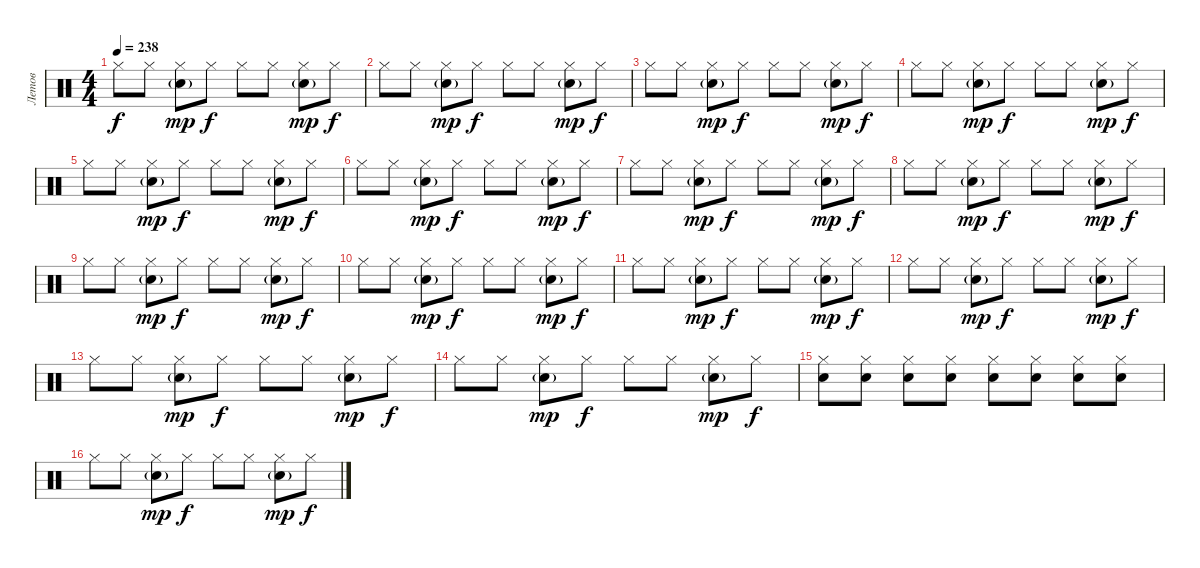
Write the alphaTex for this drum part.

\track ("Летов" "Летов") {instrument percussion}
\staff {score}
\articulation defaults
\ts (4 4)
\tempo 238
\clef neutral
\ks c "Hi-Hat (closed)".8{dy f} "Hi-Hat (closed)".8
("Hi-Hat (closed)" "Snare (hit) 2"{g}).8{dy mp} "Hi-Hat (closed)".8{dy f} "Hi-Hat (closed)".8 "Hi-Hat (closed)".8 ("Hi-Hat (closed)" "Snare (hit) 2"{g}).8{dy mp} "Hi-Hat (closed)".8{dy f} |
"Hi-Hat (closed)".8 "Hi-Hat (closed)".8 ("Hi-Hat (closed)" "Snare (hit) 2"{g}).8{dy mp} "Hi-Hat (closed)".8{dy f} "Hi-Hat (closed)".8 "Hi-Hat (closed)".8 ("Hi-Hat (closed)" "Snare (hit) 2"{g}).8{dy mp} "Hi-Hat (closed)".8{dy f} |
"Hi-Hat (closed)".8 "Hi-Hat (closed)".8 ("Hi-Hat (closed)" "Snare (hit) 2"{g}).8{dy mp} "Hi-Hat (closed)".8{dy f} "Hi-Hat (closed)".8 "Hi-Hat (closed)".8 ("Hi-Hat (closed)" "Snare (hit) 2"{g}).8{dy mp} "Hi-Hat (closed)".8{dy f} |
"Hi-Hat (closed)".8 "Hi-Hat (closed)".8 ("Hi-Hat (closed)" "Snare (hit) 2"{g}).8{dy mp} "Hi-Hat (closed)".8{dy f} "Hi-Hat (closed)".8 "Hi-Hat (closed)".8 ("Hi-Hat (closed)" "Snare (hit) 2"{g}).8{dy mp} "Hi-Hat (closed)".8{dy f} |
"Hi-Hat (closed)".8 "Hi-Hat (closed)".8 ("Hi-Hat (closed)" "Snare (hit) 2"{g}).8{dy mp} "Hi-Hat (closed)".8{dy f} "Hi-Hat (closed)".8 "Hi-Hat (closed)".8 ("Hi-Hat (closed)" "Snare (hit) 2"{g}).8{dy mp} "Hi-Hat (closed)".8{dy f} |
"Hi-Hat (closed)".8 "Hi-Hat (closed)".8 ("Hi-Hat (closed)" "Snare (hit) 2"{g}).8{dy mp} "Hi-Hat (closed)".8{dy f} "Hi-Hat (closed)".8 "Hi-Hat (closed)".8 ("Hi-Hat (closed)" "Snare (hit) 2"{g}).8{dy mp} "Hi-Hat (closed)".8{dy f} |
"Hi-Hat (closed)".8 "Hi-Hat (closed)".8 ("Hi-Hat (closed)" "Snare (hit) 2"{g}).8{dy mp} "Hi-Hat (closed)".8{dy f} "Hi-Hat (closed)".8 "Hi-Hat (closed)".8 ("Hi-Hat (closed)" "Snare (hit) 2"{g}).8{dy mp} "Hi-Hat (closed)".8{dy f} |
"Hi-Hat (closed)".8 "Hi-Hat (closed)".8 ("Hi-Hat (closed)" "Snare (hit) 2"{g}).8{dy mp} "Hi-Hat (closed)".8{dy f} "Hi-Hat (closed)".8 "Hi-Hat (closed)".8 ("Hi-Hat (closed)" "Snare (hit) 2"{g}).8{dy mp} "Hi-Hat (closed)".8{dy f} |
"Hi-Hat (closed)".8 "Hi-Hat (closed)".8 ("Hi-Hat (closed)" "Snare (hit) 2"{g}).8{dy mp} "Hi-Hat (closed)".8{dy f} "Hi-Hat (closed)".8 "Hi-Hat (closed)".8 ("Hi-Hat (closed)" "Snare (hit) 2"{g}).8{dy mp} "Hi-Hat (closed)".8{dy f} |
"Hi-Hat (closed)".8 "Hi-Hat (closed)".8 ("Hi-Hat (closed)" "Snare (hit) 2"{g}).8{dy mp} "Hi-Hat (closed)".8{dy f} "Hi-Hat (closed)".8 "Hi-Hat (closed)".8 ("Hi-Hat (closed)" "Snare (hit) 2"{g}).8{dy mp} "Hi-Hat (closed)".8{dy f} |
"Hi-Hat (closed)".8 "Hi-Hat (closed)".8 ("Hi-Hat (closed)" "Snare (hit) 2"{g}).8{dy mp} "Hi-Hat (closed)".8{dy f} "Hi-Hat (closed)".8 "Hi-Hat (closed)".8 ("Hi-Hat (closed)" "Snare (hit) 2"{g}).8{dy mp} "Hi-Hat (closed)".8{dy f} |
"Hi-Hat (closed)".8 "Hi-Hat (closed)".8 ("Hi-Hat (closed)" "Snare (hit) 2"{g}).8{dy mp} "Hi-Hat (closed)".8{dy f} "Hi-Hat (closed)".8 "Hi-Hat (closed)".8 ("Hi-Hat (closed)" "Snare (hit) 2"{g}).8{dy mp} "Hi-Hat (closed)".8{dy f} |
"Hi-Hat (closed)".8 "Hi-Hat (closed)".8 ("Hi-Hat (closed)" "Snare (hit) 2"{g}).8{dy mp} "Hi-Hat (closed)".8{dy f} "Hi-Hat (closed)".8 "Hi-Hat (closed)".8 ("Hi-Hat (closed)" "Snare (hit) 2"{g}).8{dy mp} "Hi-Hat (closed)".8{dy f} |
"Hi-Hat (closed)".8 "Hi-Hat (closed)".8 ("Hi-Hat (closed)" "Snare (hit) 2"{g}).8{dy mp} "Hi-Hat (closed)".8{dy f} "Hi-Hat (closed)".8 "Hi-Hat (closed)".8 ("Hi-Hat (closed)" "Snare (hit) 2"{g}).8{dy mp} "Hi-Hat (closed)".8{dy f} |
("Hi-Hat (closed)" "Snare (hit) 2").8 ("Hi-Hat (closed)" "Snare (hit) 2").8 ("Hi-Hat (closed)" "Snare (hit) 2").8 ("Hi-Hat (closed)" "Snare (hit) 2").8 ("Hi-Hat (closed)" "Snare (hit) 2").8 ("Hi-Hat (closed)" "Snare (hit) 2").8 ("Hi-Hat (closed)" "Snare (hit) 2").8 ("Hi-Hat (closed)" "Snare (hit) 2").8 |
"Hi-Hat (closed)".8 "Hi-Hat (closed)".8 ("Hi-Hat (closed)" "Snare (hit) 2"{g}).8{dy mp} "Hi-Hat (closed)".8{dy f} "Hi-Hat (closed)".8 "Hi-Hat (closed)".8 ("Hi-Hat (closed)" "Snare (hit) 2"{g}).8{dy mp} "Hi-Hat (closed)".8{dy f}
